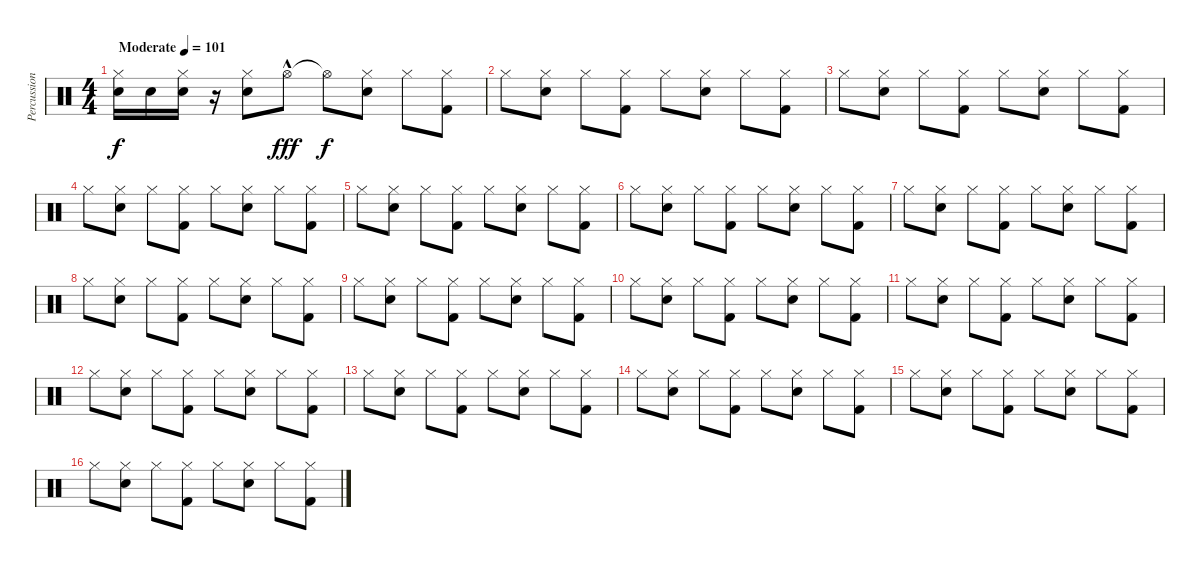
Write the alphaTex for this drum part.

\track ("Percussions" "Percussion") {instrument percussion}
\staff {score}
\articulation defaults
\ts (4 4)
\tempo (101 "Moderate")
\clef neutral
\ks c
("Hi-Hat (closed)" "Electric Snare (hit)").16{dy f} "Electric Snare (hit)".16 ("Hi-Hat (closed)" "Electric Snare (hit)").16 r.16 ("Hi-Hat (closed)" "Electric Snare (hit)").8 "Hi-Hat (open)"{hac}.8{dy fff} "Hi-Hat (open)"{t}.8{dy f} ("Hi-Hat (closed)" "Electric Snare (hit)").8 "Hi-Hat (closed)".8 ("Hi-Hat (closed)" "Kick (hit) 2").8 |
"Hi-Hat (closed)".8 ("Hi-Hat (closed)" "Electric Snare (hit)").8 "Hi-Hat (closed)".8 ("Hi-Hat (closed)" "Kick (hit) 2").8 "Hi-Hat (closed)".8 ("Hi-Hat (closed)" "Electric Snare (hit)").8 "Hi-Hat (closed)".8 ("Hi-Hat (closed)" "Kick (hit) 2").8 |
"Hi-Hat (closed)".8 ("Hi-Hat (closed)" "Electric Snare (hit)").8 "Hi-Hat (closed)".8 ("Hi-Hat (closed)" "Kick (hit) 2").8 "Hi-Hat (closed)".8 ("Hi-Hat (closed)" "Electric Snare (hit)").8 "Hi-Hat (closed)".8 ("Hi-Hat (closed)" "Kick (hit) 2").8 |
"Hi-Hat (closed)".8 ("Hi-Hat (closed)" "Electric Snare (hit)").8 "Hi-Hat (closed)".8 ("Hi-Hat (closed)" "Kick (hit) 2").8 "Hi-Hat (closed)".8 ("Hi-Hat (closed)" "Electric Snare (hit)").8 "Hi-Hat (closed)".8 ("Hi-Hat (closed)" "Kick (hit) 2").8 |
"Hi-Hat (closed)".8 ("Hi-Hat (closed)" "Electric Snare (hit)").8 "Hi-Hat (closed)".8 ("Hi-Hat (closed)" "Kick (hit) 2").8 "Hi-Hat (closed)".8 ("Hi-Hat (closed)" "Electric Snare (hit)").8 "Hi-Hat (closed)".8 ("Hi-Hat (closed)" "Kick (hit) 2").8 |
"Hi-Hat (closed)".8 ("Hi-Hat (closed)" "Electric Snare (hit)").8 "Hi-Hat (closed)".8 ("Hi-Hat (closed)" "Kick (hit) 2").8 "Hi-Hat (closed)".8 ("Hi-Hat (closed)" "Electric Snare (hit)").8 "Hi-Hat (closed)".8 ("Hi-Hat (closed)" "Kick (hit) 2").8 |
"Hi-Hat (closed)".8 ("Hi-Hat (closed)" "Electric Snare (hit)").8 "Hi-Hat (closed)".8 ("Hi-Hat (closed)" "Kick (hit) 2").8 "Hi-Hat (closed)".8 ("Hi-Hat (closed)" "Electric Snare (hit)").8 "Hi-Hat (closed)".8 ("Hi-Hat (closed)" "Kick (hit) 2").8 |
"Hi-Hat (closed)".8 ("Hi-Hat (closed)" "Electric Snare (hit)").8 "Hi-Hat (closed)".8 ("Hi-Hat (closed)" "Kick (hit) 2").8 "Hi-Hat (closed)".8 ("Hi-Hat (closed)" "Electric Snare (hit)").8 "Hi-Hat (closed)".8 ("Hi-Hat (closed)" "Kick (hit) 2").8 |
"Hi-Hat (closed)".8 ("Hi-Hat (closed)" "Electric Snare (hit)").8 "Hi-Hat (closed)".8 ("Hi-Hat (closed)" "Kick (hit) 2").8 "Hi-Hat (closed)".8 ("Hi-Hat (closed)" "Electric Snare (hit)").8 "Hi-Hat (closed)".8 ("Hi-Hat (closed)" "Kick (hit) 2").8 |
"Hi-Hat (closed)".8 ("Hi-Hat (closed)" "Electric Snare (hit)").8 "Hi-Hat (closed)".8 ("Hi-Hat (closed)" "Kick (hit) 2").8 "Hi-Hat (closed)".8 ("Hi-Hat (closed)" "Electric Snare (hit)").8 "Hi-Hat (closed)".8 ("Hi-Hat (closed)" "Kick (hit) 2").8 |
"Hi-Hat (closed)".8 ("Hi-Hat (closed)" "Electric Snare (hit)").8 "Hi-Hat (closed)".8 ("Hi-Hat (closed)" "Kick (hit) 2").8 "Hi-Hat (closed)".8 ("Hi-Hat (closed)" "Electric Snare (hit)").8 "Hi-Hat (closed)".8 ("Hi-Hat (closed)" "Kick (hit) 2").8 |
"Hi-Hat (closed)".8 ("Hi-Hat (closed)" "Electric Snare (hit)").8 "Hi-Hat (closed)".8 ("Hi-Hat (closed)" "Kick (hit) 2").8 "Hi-Hat (closed)".8 ("Hi-Hat (closed)" "Electric Snare (hit)").8 "Hi-Hat (closed)".8 ("Hi-Hat (closed)" "Kick (hit) 2").8 |
"Hi-Hat (closed)".8 ("Hi-Hat (closed)" "Electric Snare (hit)").8 "Hi-Hat (closed)".8 ("Hi-Hat (closed)" "Kick (hit) 2").8 "Hi-Hat (closed)".8 ("Hi-Hat (closed)" "Electric Snare (hit)").8 "Hi-Hat (closed)".8 ("Hi-Hat (closed)" "Kick (hit) 2").8 |
"Hi-Hat (closed)".8 ("Hi-Hat (closed)" "Electric Snare (hit)").8 "Hi-Hat (closed)".8 ("Hi-Hat (closed)" "Kick (hit) 2").8 "Hi-Hat (closed)".8 ("Hi-Hat (closed)" "Electric Snare (hit)").8 "Hi-Hat (closed)".8 ("Hi-Hat (closed)" "Kick (hit) 2").8 |
"Hi-Hat (closed)".8 ("Hi-Hat (closed)" "Electric Snare (hit)").8 "Hi-Hat (closed)".8 ("Hi-Hat (closed)" "Kick (hit) 2").8 "Hi-Hat (closed)".8 ("Hi-Hat (closed)" "Electric Snare (hit)").8 "Hi-Hat (closed)".8 ("Hi-Hat (closed)" "Kick (hit) 2").8 |
"Hi-Hat (closed)".8 ("Hi-Hat (closed)" "Electric Snare (hit)").8 "Hi-Hat (closed)".8 ("Hi-Hat (closed)" "Kick (hit) 2").8 "Hi-Hat (closed)".8 ("Hi-Hat (closed)" "Electric Snare (hit)").8 "Hi-Hat (closed)".8 ("Hi-Hat (closed)" "Kick (hit) 2").8
